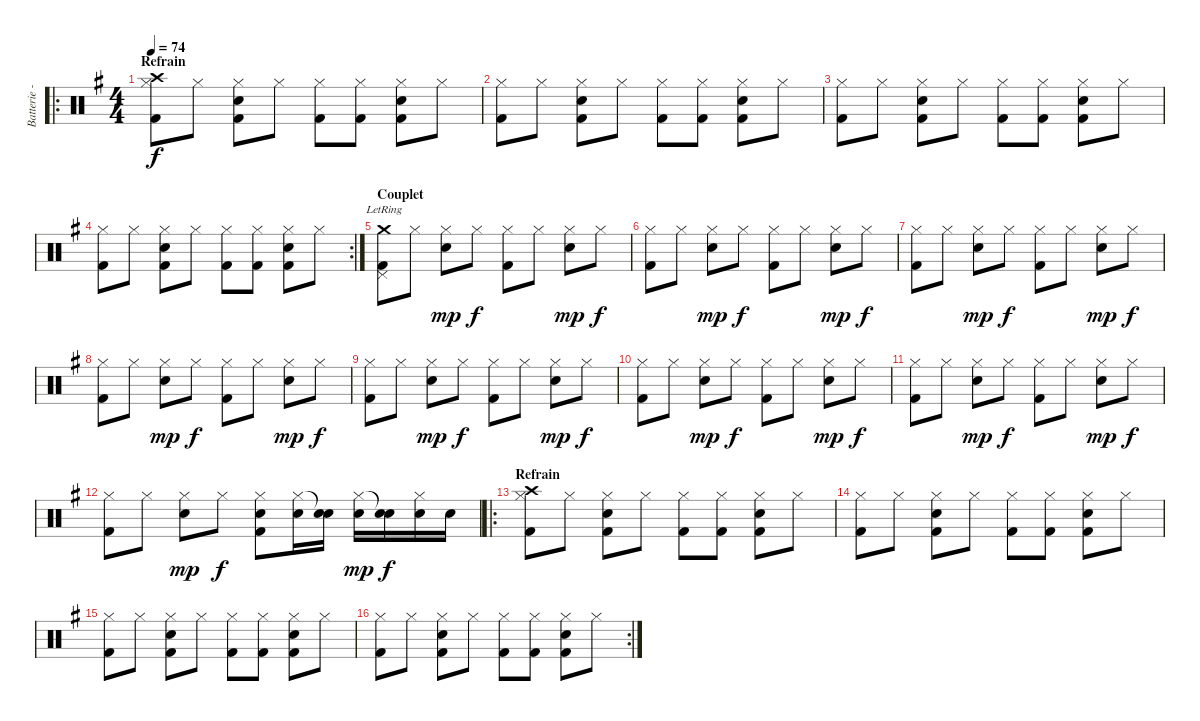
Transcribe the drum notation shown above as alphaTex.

\track ("Batterie - Romain" "Batterie -") {instrument percussion}
\staff {score}
\articulation defaults
\ro
\ts (4 4)
\section ("" "Refrain")
\tempo 74
\clef neutral
\ks g
("Crash high (hit)" "Hi-Hat (closed)" "Kick (hit) 2").8{dy f} "Hi-Hat (closed)".8 ("Hi-Hat (closed)" "Snare (hit) 2" "Kick (hit) 2").8 "Hi-Hat (closed)".8 ("Hi-Hat (closed)" "Kick (hit) 2").8 ("Hi-Hat (closed)" "Kick (hit) 2").8 ("Hi-Hat (closed)" "Snare (hit) 2" "Kick (hit) 2").8 "Hi-Hat (closed)".8 |
("Hi-Hat (closed)" "Kick (hit) 2").8 "Hi-Hat (closed)".8 ("Hi-Hat (closed)" "Snare (hit) 2" "Kick (hit) 2").8 "Hi-Hat (closed)".8 ("Hi-Hat (closed)" "Kick (hit) 2").8 ("Hi-Hat (closed)" "Kick (hit) 2").8 ("Hi-Hat (closed)" "Snare (hit) 2" "Kick (hit) 2").8 "Hi-Hat (closed)".8 |
("Hi-Hat (closed)" "Kick (hit) 2").8 "Hi-Hat (closed)".8 ("Hi-Hat (closed)" "Snare (hit) 2" "Kick (hit) 2").8 "Hi-Hat (closed)".8 ("Hi-Hat (closed)" "Kick (hit) 2").8 ("Hi-Hat (closed)" "Kick (hit) 2").8 ("Hi-Hat (closed)" "Snare (hit) 2" "Kick (hit) 2").8 "Hi-Hat (closed)".8 |
\rc 2
("Hi-Hat (closed)" "Kick (hit) 2").8 "Hi-Hat (closed)".8 ("Hi-Hat (closed)" "Snare (hit) 2" "Kick (hit) 2").8 "Hi-Hat (closed)".8 ("Hi-Hat (closed)" "Kick (hit) 2").8 ("Hi-Hat (closed)" "Kick (hit) 2").8 ("Hi-Hat (closed)" "Snare (hit) 2" "Kick (hit) 2").8 "Hi-Hat (closed)".8 |
\section ("" "Couplet")
("Crash medium (hit)"{lr} "Pedal Hi-Hat (hit)" "Kick (hit) 2").8 "Hi-Hat (closed)".8 ("Hi-Hat (closed)" "Electric Snare (hit)").8{dy mp} "Hi-Hat (closed)".8{dy f} ("Hi-Hat (closed)" "Kick (hit) 2").8 "Hi-Hat (closed)".8 ("Hi-Hat (closed)" "Electric Snare (hit)").8{dy mp} "Hi-Hat (closed)".8{dy f} |
("Hi-Hat (closed)" "Kick (hit) 2").8 "Hi-Hat (closed)".8 ("Hi-Hat (closed)" "Electric Snare (hit)").8{dy mp} "Hi-Hat (closed)".8{dy f} ("Hi-Hat (closed)" "Kick (hit) 2").8 "Hi-Hat (closed)".8 ("Hi-Hat (closed)" "Electric Snare (hit)").8{dy mp} "Hi-Hat (closed)".8{dy f} |
("Hi-Hat (closed)" "Kick (hit) 2").8 "Hi-Hat (closed)".8 ("Hi-Hat (closed)" "Electric Snare (hit)").8{dy mp} "Hi-Hat (closed)".8{dy f} ("Hi-Hat (closed)" "Kick (hit) 2").8 "Hi-Hat (closed)".8 ("Hi-Hat (closed)" "Electric Snare (hit)").8{dy mp} "Hi-Hat (closed)".8{dy f} |
("Hi-Hat (closed)" "Kick (hit) 2").8 "Hi-Hat (closed)".8 ("Hi-Hat (closed)" "Electric Snare (hit)").8{dy mp} "Hi-Hat (closed)".8{dy f} ("Hi-Hat (closed)" "Kick (hit) 2").8 "Hi-Hat (closed)".8 ("Hi-Hat (closed)" "Electric Snare (hit)").8{dy mp} "Hi-Hat (closed)".8{dy f} |
("Hi-Hat (closed)" "Kick (hit) 2").8 "Hi-Hat (closed)".8 ("Hi-Hat (closed)" "Electric Snare (hit)").8{dy mp} "Hi-Hat (closed)".8{dy f} ("Hi-Hat (closed)" "Kick (hit) 2").8 "Hi-Hat (closed)".8 ("Hi-Hat (closed)" "Electric Snare (hit)").8{dy mp} "Hi-Hat (closed)".8{dy f} |
("Hi-Hat (closed)" "Kick (hit) 2").8 "Hi-Hat (closed)".8 ("Hi-Hat (closed)" "Electric Snare (hit)").8{dy mp} "Hi-Hat (closed)".8{dy f} ("Hi-Hat (closed)" "Kick (hit) 2").8 "Hi-Hat (closed)".8 ("Hi-Hat (closed)" "Electric Snare (hit)").8{dy mp} "Hi-Hat (closed)".8{dy f} |
("Hi-Hat (closed)" "Kick (hit) 2").8 "Hi-Hat (closed)".8 ("Hi-Hat (closed)" "Electric Snare (hit)").8{dy mp} "Hi-Hat (closed)".8{dy f} ("Hi-Hat (closed)" "Kick (hit) 2").8 "Hi-Hat (closed)".8 ("Hi-Hat (closed)" "Electric Snare (hit)").8{dy mp} "Hi-Hat (closed)".8{dy f} |
("Hi-Hat (closed)" "Kick (hit) 2").8 "Hi-Hat (closed)".8 ("Hi-Hat (closed)" "Electric Snare (hit)").8{dy mp} "Hi-Hat (closed)".8{dy f} ("Hi-Hat (closed)" "Snare (hit) 2" "Kick (hit) 2").8 ("Hi-Hat (closed)" "Snare (hit) 2").16 ("Snare (hit)"{t} "Snare (hit) 2").16 ("Hi-Hat (closed)" "Snare (hit) 2").16{dy mp} ("Snare (hit)"{t} "Snare (hit) 2").16{dy f} ("Hi-Hat (closed)" "Snare (hit) 2").16 "Snare (hit) 2".16 |
\ro
\section ("" "Refrain")
("Crash high (hit)" "Hi-Hat (closed)" "Kick (hit) 2").8 "Hi-Hat (closed)".8 ("Hi-Hat (closed)" "Snare (hit) 2" "Kick (hit) 2").8 "Hi-Hat (closed)".8 ("Hi-Hat (closed)" "Kick (hit) 2").8 ("Hi-Hat (closed)" "Kick (hit) 2").8 ("Hi-Hat (closed)" "Snare (hit) 2" "Kick (hit) 2").8 "Hi-Hat (closed)".8 |
("Hi-Hat (closed)" "Kick (hit) 2").8 "Hi-Hat (closed)".8 ("Hi-Hat (closed)" "Snare (hit) 2" "Kick (hit) 2").8 "Hi-Hat (closed)".8 ("Hi-Hat (closed)" "Kick (hit) 2").8 ("Hi-Hat (closed)" "Kick (hit) 2").8 ("Hi-Hat (closed)" "Snare (hit) 2" "Kick (hit) 2").8 "Hi-Hat (closed)".8 |
("Hi-Hat (closed)" "Kick (hit) 2").8 "Hi-Hat (closed)".8 ("Hi-Hat (closed)" "Snare (hit) 2" "Kick (hit) 2").8 "Hi-Hat (closed)".8 ("Hi-Hat (closed)" "Kick (hit) 2").8 ("Hi-Hat (closed)" "Kick (hit) 2").8 ("Hi-Hat (closed)" "Snare (hit) 2" "Kick (hit) 2").8 "Hi-Hat (closed)".8 |
\rc 2
("Hi-Hat (closed)" "Kick (hit) 2").8 "Hi-Hat (closed)".8 ("Hi-Hat (closed)" "Snare (hit) 2" "Kick (hit) 2").8 "Hi-Hat (closed)".8 ("Hi-Hat (closed)" "Kick (hit) 2").8 ("Hi-Hat (closed)" "Kick (hit) 2").8 ("Hi-Hat (closed)" "Snare (hit) 2" "Kick (hit) 2").8 "Hi-Hat (closed)".8
